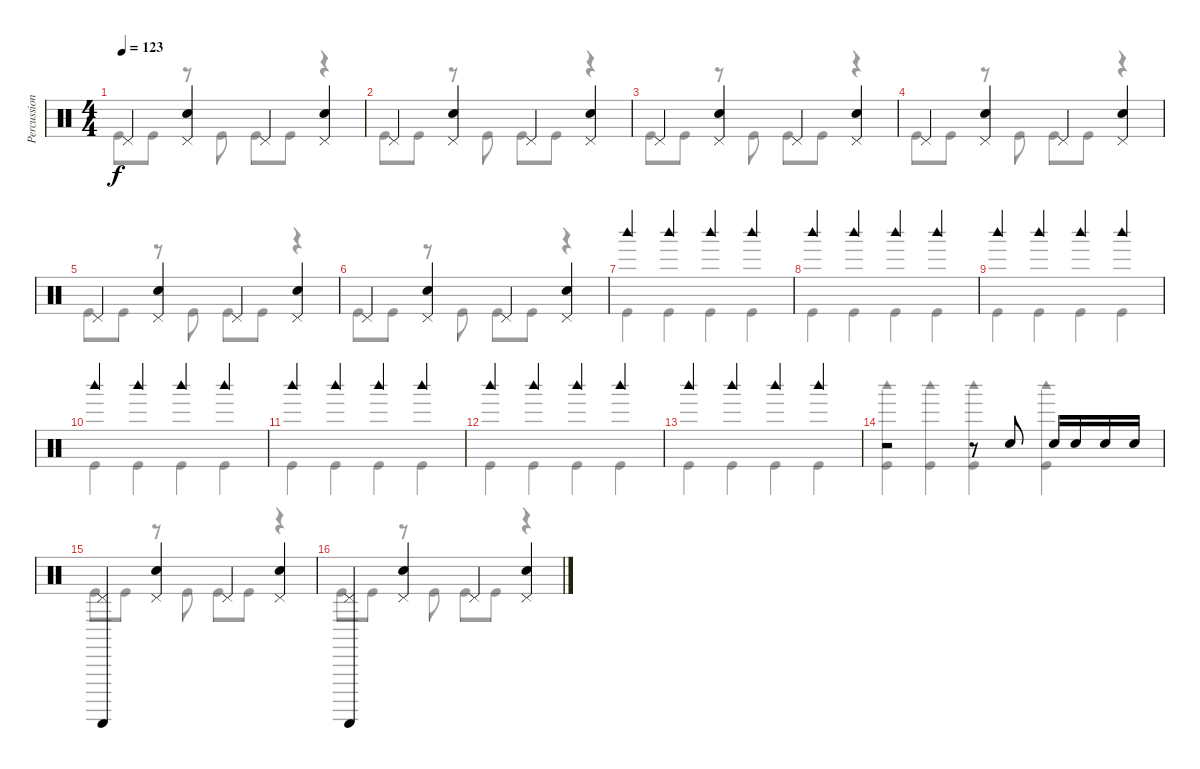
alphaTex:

\track ("Percussion" "Percussion") {instrument percussion}
\staff {score}
\articulation defaults
\voice
\ts (4 4)
\tempo 123
\clef neutral
\ks c "Pedal Hi-Hat (hit)".4{dy f}
("Electric Snare (hit)" "Pedal Hi-Hat (hit)").4 "Pedal Hi-Hat (hit)".4 ("Electric Snare (hit)" "Pedal Hi-Hat (hit)").4 |
"Pedal Hi-Hat (hit)".4 ("Electric Snare (hit)" "Pedal Hi-Hat (hit)").4 "Pedal Hi-Hat (hit)".4 ("Electric Snare (hit)" "Pedal Hi-Hat (hit)").4 |
"Pedal Hi-Hat (hit)".4 ("Electric Snare (hit)" "Pedal Hi-Hat (hit)").4 "Pedal Hi-Hat (hit)".4 ("Electric Snare (hit)" "Pedal Hi-Hat (hit)").4 |
"Pedal Hi-Hat (hit)".4 ("Electric Snare (hit)" "Pedal Hi-Hat (hit)").4 "Pedal Hi-Hat (hit)".4 ("Electric Snare (hit)" "Pedal Hi-Hat (hit)").4 |
"Pedal Hi-Hat (hit)".4 ("Electric Snare (hit)" "Pedal Hi-Hat (hit)").4 "Pedal Hi-Hat (hit)".4 ("Electric Snare (hit)" "Pedal Hi-Hat (hit)").4 |
"Pedal Hi-Hat (hit)".4 ("Electric Snare (hit)" "Pedal Hi-Hat (hit)").4 "Pedal Hi-Hat (hit)".4 ("Electric Snare (hit)" "Pedal Hi-Hat (hit)").4 |
"Woodblock high (hit)".4 "Woodblock high (hit)".4 "Woodblock high (hit)".4 "Woodblock high (hit)".4 |
"Woodblock high (hit)".4 "Woodblock high (hit)".4 "Woodblock high (hit)".4 "Woodblock high (hit)".4 |
"Woodblock high (hit)".4 "Woodblock high (hit)".4 "Woodblock high (hit)".4 "Woodblock high (hit)".4 |
"Woodblock high (hit)".4 "Woodblock high (hit)".4 "Woodblock high (hit)".4 "Woodblock high (hit)".4 |
"Woodblock high (hit)".4 "Woodblock high (hit)".4 "Woodblock high (hit)".4 "Woodblock high (hit)".4 |
"Woodblock high (hit)".4 "Woodblock high (hit)".4 "Woodblock high (hit)".4 "Woodblock high (hit)".4 |
"Woodblock high (hit)".4 "Woodblock high (hit)".4 "Woodblock high (hit)".4 "Woodblock high (hit)".4 |
r.2 r.8 "Electric Snare (hit)".8 "Electric Snare (hit)".16 "Electric Snare (hit)".16 "Electric Snare (hit)".16 "Electric Snare (hit)".16 |
("Guiro (scrap-return)" "Pedal Hi-Hat (hit)").4 ("Electric Snare (hit)" "Pedal Hi-Hat (hit)").4 "Pedal Hi-Hat (hit)".4 ("Electric Snare (hit)" "Pedal Hi-Hat (hit)").4 |
("Guiro (scrap-return)" "Pedal Hi-Hat (hit)").4 ("Electric Snare (hit)" "Pedal Hi-Hat (hit)").4 "Pedal Hi-Hat (hit)".4 ("Electric Snare (hit)" "Pedal Hi-Hat (hit)").4
\voice
\clef neutral
\ottava regular
\simile none
\ks c "Kick (hit)".8{dy f} "Kick (hit)".8
r.8 "Kick (hit)".8 "Kick (hit)".8 "Kick (hit)".8 r.4 |
"Kick (hit)".8 "Kick (hit)".8 r.8 "Kick (hit)".8 "Kick (hit)".8 "Kick (hit)".8 r.4 |
"Kick (hit)".8 "Kick (hit)".8 r.8 "Kick (hit)".8 "Kick (hit)".8 "Kick (hit)".8 r.4 |
"Kick (hit)".8 "Kick (hit)".8 r.8 "Kick (hit)".8 "Kick (hit)".8 "Kick (hit)".8 r.4 |
"Kick (hit)".8 "Kick (hit)".8 r.8 "Kick (hit)".8 "Kick (hit)".8 "Kick (hit)".8 r.4 |
"Kick (hit)".8 "Kick (hit)".8 r.8 "Kick (hit)".8 "Kick (hit)".8 "Kick (hit)".8 r.4 |
"Kick (hit)".4 "Kick (hit)".4 "Kick (hit)".4 "Kick (hit)".4 |
"Kick (hit)".4 "Kick (hit)".4 "Kick (hit)".4 "Kick (hit)".4 |
"Kick (hit)".4 "Kick (hit)".4 "Kick (hit)".4 "Kick (hit)".4 |
"Kick (hit)".4 "Kick (hit)".4 "Kick (hit)".4 "Kick (hit)".4 |
"Kick (hit)".4 "Kick (hit)".4 "Kick (hit)".4 "Kick (hit)".4 |
"Kick (hit)".4 "Kick (hit)".4 "Kick (hit)".4 "Kick (hit)".4 |
"Kick (hit)".4 "Kick (hit)".4 "Kick (hit)".4 "Kick (hit)".4 |
("Woodblock high (hit)" "Kick (hit)").4 ("Woodblock high (hit)" "Kick (hit)").4 ("Woodblock high (hit)" "Kick (hit)").4 ("Woodblock high (hit)" "Kick (hit)").4 |
"Kick (hit)".8 "Kick (hit)".8 r.8 "Kick (hit)".8 "Kick (hit)".8 "Kick (hit)".8 r.4 |
"Kick (hit)".8 "Kick (hit)".8 r.8 "Kick (hit)".8 "Kick (hit)".8 "Kick (hit)".8 r.4
